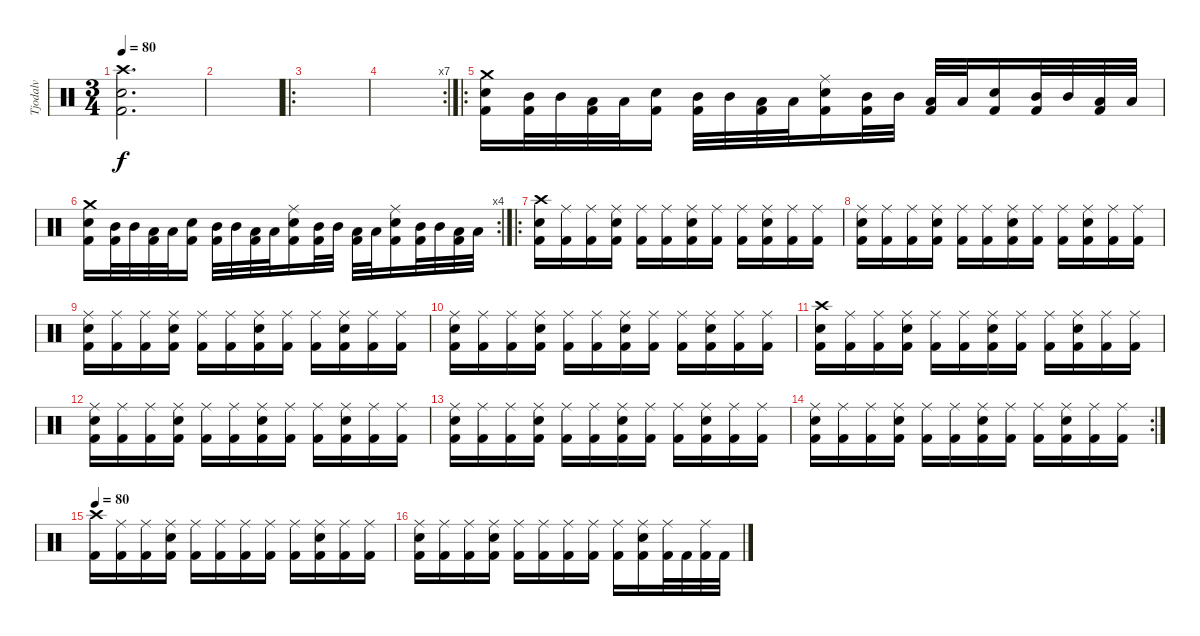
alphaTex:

\track ("Tjodalv" "Tjodalv") {instrument percussion}
\staff {score}
\articulation defaults
\ts (3 4)
\tempo 80
\clef neutral
\ks c
("Crash high (hit)" "Electric Snare (hit)" "Kick (hit) 2").2{d dy f} |
|
\ro
|
\rc 7
|
\ro
("Crash medium (hit)" "Electric Snare (hit)" "Kick (hit) 2").16 ("Mid Tom (hit)" "Kick (hit) 2").32 "Mid Tom (hit)".32 ("Low Tom (hit)" "Kick (hit) 2").32 "Low Tom (hit)".32 ("Electric Snare (hit)" "Kick (hit) 2").16 ("Mid Tom (hit)" "Kick (hit) 2").32 "Mid Tom (hit)".32 ("Low Tom (hit)" "Kick (hit) 2").32 "Low Tom (hit)".32 ("Ride (middle)" "Electric Snare (hit)" "Kick (hit) 2").16 ("Mid Tom (hit)" "Kick (hit) 2").32 "Mid Tom (hit)".32 ("Low Tom (hit)" "Kick (hit) 2").32 "Low Tom (hit)".32 ("Electric Snare (hit)" "Kick (hit) 2").16 ("Mid Tom (hit)" "Kick (hit) 2").32 "Mid Tom (hit)".32 ("Low Tom (hit)" "Kick (hit) 2").32 "Low Tom (hit)".32 |
\rc 4
("Crash medium (hit)" "Electric Snare (hit)" "Kick (hit) 2").16 ("Mid Tom (hit)" "Kick (hit) 2").32 "Mid Tom (hit)".32 ("Low Tom (hit)" "Kick (hit) 2").32 "Low Tom (hit)".32 ("Electric Snare (hit)" "Kick (hit) 2").16 ("Mid Tom (hit)" "Kick (hit) 2").32 "Mid Tom (hit)".32 ("Low Tom (hit)" "Kick (hit) 2").32 "Low Tom (hit)".32 ("Ride (middle)" "Electric Snare (hit)" "Kick (hit) 2").16 ("Mid Tom (hit)" "Kick (hit) 2").32 "Mid Tom (hit)".32 ("Low Tom (hit)" "Kick (hit) 2").32 "Low Tom (hit)".32 ("Ride (middle)" "Electric Snare (hit)" "Kick (hit) 2").16 ("Mid Tom (hit)" "Kick (hit) 2").32 "Mid Tom (hit)".32 ("Low Tom (hit)" "Kick (hit) 2").32 "Low Tom (hit)".32 |
\ro
("Crash high (hit)" "Electric Snare (hit)" "Kick (hit) 2").16 ("Ride (middle)" "Kick (hit) 2").16 ("Ride (middle)" "Kick (hit) 2").16 ("Ride (middle)" "Electric Snare (hit)" "Kick (hit) 2").16 ("Ride (middle)" "Kick (hit) 2").16 ("Ride (middle)" "Kick (hit) 2").16 ("Ride (middle)" "Electric Snare (hit)" "Kick (hit) 2").16 ("Ride (middle)" "Kick (hit) 2").16 ("Ride (middle)" "Kick (hit) 2").16 ("Ride (middle)" "Electric Snare (hit)" "Kick (hit) 2").16 ("Ride (middle)" "Kick (hit) 2").16 ("Ride (middle)" "Kick (hit) 2").16 |
("Ride (middle)" "Electric Snare (hit)" "Kick (hit) 2").16 ("Ride (middle)" "Kick (hit) 2").16 ("Ride (middle)" "Kick (hit) 2").16 ("Ride (middle)" "Electric Snare (hit)" "Kick (hit) 2").16 ("Ride (middle)" "Kick (hit) 2").16 ("Ride (middle)" "Kick (hit) 2").16 ("Ride (middle)" "Electric Snare (hit)" "Kick (hit) 2").16 ("Ride (middle)" "Kick (hit) 2").16 ("Ride (middle)" "Kick (hit) 2").16 ("Ride (middle)" "Electric Snare (hit)" "Kick (hit) 2").16 ("Ride (middle)" "Kick (hit) 2").16 ("Ride (middle)" "Kick (hit) 2").16 |
("Ride (middle)" "Electric Snare (hit)" "Kick (hit) 2").16 ("Ride (middle)" "Kick (hit) 2").16 ("Ride (middle)" "Kick (hit) 2").16 ("Ride (middle)" "Electric Snare (hit)" "Kick (hit) 2").16 ("Ride (middle)" "Kick (hit) 2").16 ("Ride (middle)" "Kick (hit) 2").16 ("Ride (middle)" "Electric Snare (hit)" "Kick (hit) 2").16 ("Ride (middle)" "Kick (hit) 2").16 ("Ride (middle)" "Kick (hit) 2").16 ("Ride (middle)" "Electric Snare (hit)" "Kick (hit) 2").16 ("Ride (middle)" "Kick (hit) 2").16 ("Ride (middle)" "Kick (hit) 2").16 |
("Ride (middle)" "Electric Snare (hit)" "Kick (hit) 2").16 ("Ride (middle)" "Kick (hit) 2").16 ("Ride (middle)" "Kick (hit) 2").16 ("Ride (middle)" "Electric Snare (hit)" "Kick (hit) 2").16 ("Ride (middle)" "Kick (hit) 2").16 ("Ride (middle)" "Kick (hit) 2").16 ("Ride (middle)" "Electric Snare (hit)" "Kick (hit) 2").16 ("Ride (middle)" "Kick (hit) 2").16 ("Ride (middle)" "Kick (hit) 2").16 ("Ride (middle)" "Electric Snare (hit)" "Kick (hit) 2").16 ("Ride (middle)" "Kick (hit) 2").16 ("Ride (middle)" "Kick (hit) 2").16 |
("Crash high (hit)" "Electric Snare (hit)" "Kick (hit) 2").16 ("Ride (middle)" "Kick (hit) 2").16 ("Ride (middle)" "Kick (hit) 2").16 ("Ride (middle)" "Electric Snare (hit)" "Kick (hit) 2").16 ("Ride (middle)" "Kick (hit) 2").16 ("Ride (middle)" "Kick (hit) 2").16 ("Ride (middle)" "Electric Snare (hit)" "Kick (hit) 2").16 ("Ride (middle)" "Kick (hit) 2").16 ("Ride (middle)" "Kick (hit) 2").16 ("Ride (middle)" "Electric Snare (hit)" "Kick (hit) 2").16 ("Ride (middle)" "Kick (hit) 2").16 ("Ride (middle)" "Kick (hit) 2").16 |
("Ride (middle)" "Electric Snare (hit)" "Kick (hit) 2").16 ("Ride (middle)" "Kick (hit) 2").16 ("Ride (middle)" "Kick (hit) 2").16 ("Ride (middle)" "Electric Snare (hit)" "Kick (hit) 2").16 ("Ride (middle)" "Kick (hit) 2").16 ("Ride (middle)" "Kick (hit) 2").16 ("Ride (middle)" "Electric Snare (hit)" "Kick (hit) 2").16 ("Ride (middle)" "Kick (hit) 2").16 ("Ride (middle)" "Kick (hit) 2").16 ("Ride (middle)" "Electric Snare (hit)" "Kick (hit) 2").16 ("Ride (middle)" "Kick (hit) 2").16 ("Ride (middle)" "Kick (hit) 2").16 |
("Ride (middle)" "Electric Snare (hit)" "Kick (hit) 2").16 ("Ride (middle)" "Kick (hit) 2").16 ("Ride (middle)" "Kick (hit) 2").16 ("Ride (middle)" "Electric Snare (hit)" "Kick (hit) 2").16 ("Ride (middle)" "Kick (hit) 2").16 ("Ride (middle)" "Kick (hit) 2").16 ("Ride (middle)" "Electric Snare (hit)" "Kick (hit) 2").16 ("Ride (middle)" "Kick (hit) 2").16 ("Ride (middle)" "Kick (hit) 2").16 ("Ride (middle)" "Electric Snare (hit)" "Kick (hit) 2").16 ("Ride (middle)" "Kick (hit) 2").16 ("Ride (middle)" "Kick (hit) 2").16 |
\rc 2
("Ride (middle)" "Electric Snare (hit)" "Kick (hit) 2").16 ("Ride (middle)" "Kick (hit) 2").16 ("Ride (middle)" "Kick (hit) 2").16 ("Ride (middle)" "Electric Snare (hit)" "Kick (hit) 2").16 ("Ride (middle)" "Kick (hit) 2").16 ("Ride (middle)" "Kick (hit) 2").16 ("Ride (middle)" "Electric Snare (hit)" "Kick (hit) 2").16 ("Ride (middle)" "Kick (hit) 2").16 ("Ride (middle)" "Kick (hit) 2").16 ("Ride (middle)" "Electric Snare (hit)" "Kick (hit) 2").16 ("Ride (middle)" "Kick (hit) 2").16 ("Ride (middle)" "Kick (hit) 2").16 |
\tempo 80
("Crash high (hit)" "Kick (hit) 2").16 ("Ride (middle)" "Kick (hit) 2").16 ("Ride (middle)" "Kick (hit) 2").16 ("Ride (middle)" "Electric Snare (hit)" "Kick (hit) 2").16 ("Ride (middle)" "Kick (hit) 2").16 ("Ride (middle)" "Kick (hit) 2").16 ("Ride (middle)" "Kick (hit) 2").16 ("Ride (middle)" "Kick (hit) 2").16 ("Ride (middle)" "Kick (hit) 2").16 ("Ride (middle)" "Electric Snare (hit)" "Kick (hit) 2").16 ("Ride (middle)" "Kick (hit) 2").16 ("Ride (middle)" "Kick (hit) 2").16 |
("Ride (middle)" "Electric Snare (hit)" "Kick (hit) 2").16 ("Ride (middle)" "Kick (hit) 2").16 ("Ride (middle)" "Kick (hit) 2").16 ("Ride (middle)" "Electric Snare (hit)" "Kick (hit) 2").16 ("Ride (middle)" "Kick (hit) 2").16 ("Ride (middle)" "Kick (hit) 2").16 ("Ride (middle)" "Kick (hit) 2").16 ("Ride (middle)" "Kick (hit) 2").16 ("Ride (middle)" "Kick (hit) 2").16 ("Ride (middle)" "Electric Snare (hit)" "Kick (hit) 2").16 ("Ride (middle)" "Kick (hit) 2").32 "Kick (hit) 2".32 ("Ride (middle)" "Kick (hit) 2").32 "Kick (hit) 2".32
